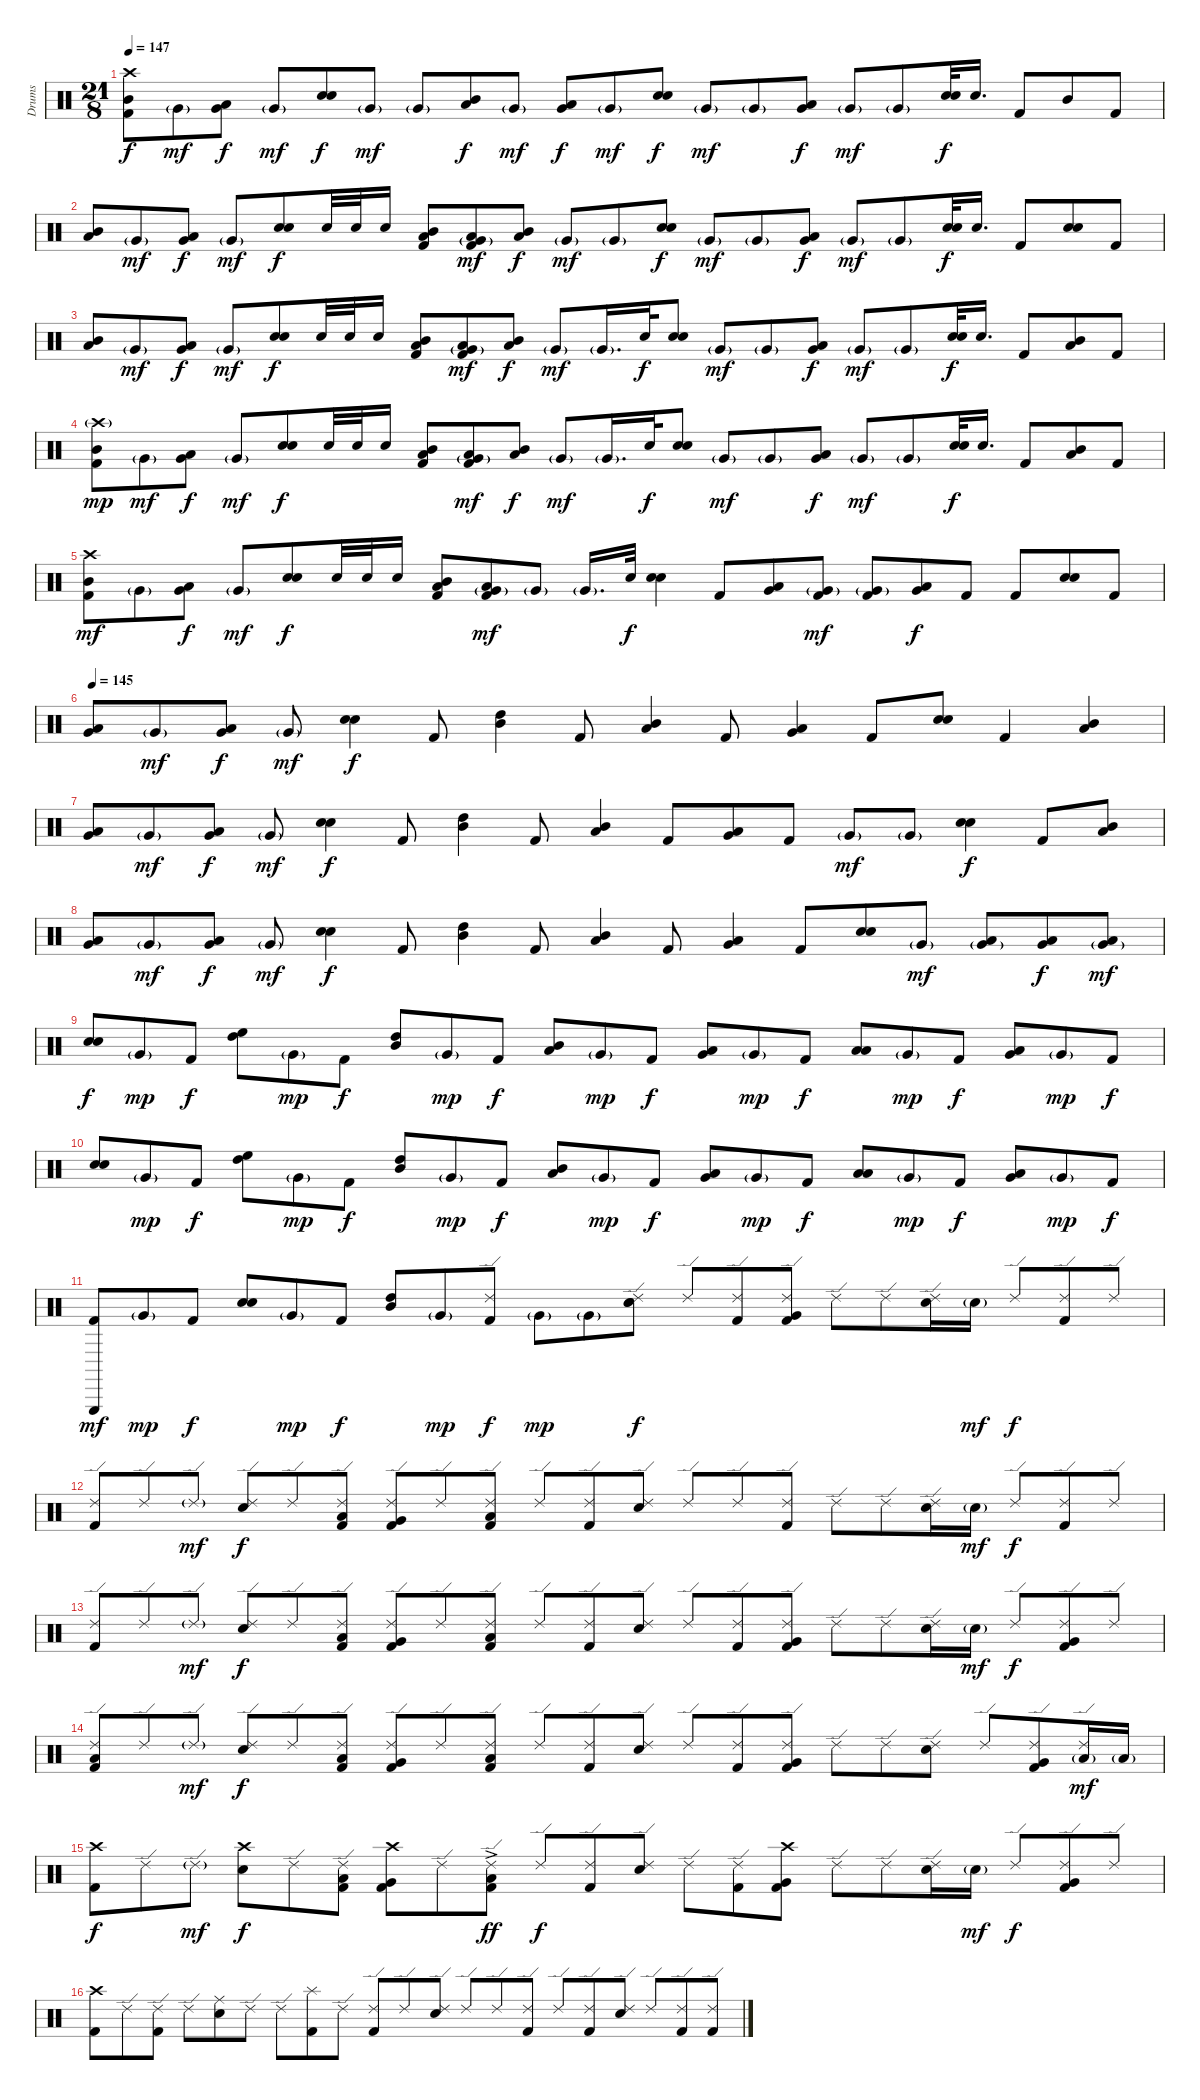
\track ("Drums" "Drums") {instrument percussion}
\staff {score}
\articulation defaults
\ts (21 8)
\tempo 147
\clef neutral
\ks c
("Crash high (hit)" "Mid Tom (hit)" "Kick (hit) 2").8{dy f} "Very Low Tom (hit)"{g}.8{dy mf} ("Low Tom (hit)" "Very Low Tom (hit)").8{dy f} "Very Low Tom (hit)"{g}.8{dy mf} ("Snare (hit) 2" "Electric Snare (hit)").8{dy f} "Very Low Tom (hit)"{g}.8{dy mf} "Very Low Tom (hit)"{g}.8 ("Mid Tom (hit)" "Low Tom (hit)").8{dy f} "Very Low Tom (hit)"{g}.8{dy mf} ("Low Tom (hit)" "Very Low Tom (hit)").8{dy f} "Very Low Tom (hit)"{g}.8{dy mf} ("Snare (hit) 2" "Electric Snare (hit)").8{dy f} "Very Low Tom (hit)"{g}.8{dy mf} "Very Low Tom (hit)"{g}.8 ("Low Tom (hit)" "Very Low Tom (hit)").8{dy f} "Very Low Tom (hit)"{g}.8{dy mf} "Very Low Tom (hit)"{g}.8 ("Snare (hit) 2" "Electric Snare (hit)").32{dy f} "Snare (hit) 2".16{d} "Kick (hit) 2".8 "Mid Tom (hit)".8 "Kick (hit) 2".8 |
("Mid Tom (hit)" "Low Tom (hit)").8 "Very Low Tom (hit)"{g}.8{dy mf} ("Low Tom (hit)" "Very Low Tom (hit)").8{dy f} "Very Low Tom (hit)"{g}.8{dy mf} ("Snare (hit) 2" "Electric Snare (hit)").8{dy f} "Snare (hit) 2".32 "Snare (hit) 2".32 "Snare (hit) 2".16 ("Mid Tom (hit)" "Low Tom (hit)" "Kick (hit) 2").8 ("Low Tom (hit)" "Very Low Tom (hit)"{g} "Kick (hit) 2").8{dy mf} ("Mid Tom (hit)" "Low Tom (hit)").8{dy f} "Very Low Tom (hit)"{g}.8{dy mf} "Very Low Tom (hit)"{g}.8 ("Snare (hit) 2" "Electric Snare (hit)").8{dy f} "Very Low Tom (hit)"{g}.8{dy mf} "Very Low Tom (hit)"{g}.8 ("Low Tom (hit)" "Very Low Tom (hit)").8{dy f} "Very Low Tom (hit)"{g}.8{dy mf} "Very Low Tom (hit)"{g}.8 ("Snare (hit) 2" "Electric Snare (hit)").32{dy f} "Snare (hit) 2".16{d} "Kick (hit) 2".8 ("Snare (hit) 2" "Electric Snare (hit)").8 "Kick (hit) 2".8 |
("Mid Tom (hit)" "Low Tom (hit)").8 "Very Low Tom (hit)"{g}.8{dy mf} ("Low Tom (hit)" "Very Low Tom (hit)").8{dy f} "Very Low Tom (hit)"{g}.8{dy mf} ("Snare (hit) 2" "Electric Snare (hit)").8{dy f} "Snare (hit) 2".32 "Snare (hit) 2".32 "Snare (hit) 2".16 ("Mid Tom (hit)" "Low Tom (hit)" "Kick (hit) 2").8 ("Low Tom (hit)" "Very Low Tom (hit)"{g} "Kick (hit) 2").8{dy mf} ("Mid Tom (hit)" "Low Tom (hit)").8{dy f} "Very Low Tom (hit)"{g}.8{dy mf} "Very Low Tom (hit)"{g}.16{d} "Snare (hit) 2".32{dy f} ("Snare (hit) 2" "Electric Snare (hit)").8 "Very Low Tom (hit)"{g}.8{dy mf} "Very Low Tom (hit)"{g}.8 ("Low Tom (hit)" "Very Low Tom (hit)").8{dy f} "Very Low Tom (hit)"{g}.8{dy mf} "Very Low Tom (hit)"{g}.8 ("Snare (hit) 2" "Electric Snare (hit)").32{dy f} "Snare (hit) 2".16{d} "Kick (hit) 2".8 ("Mid Tom (hit)" "Low Tom (hit)").8 "Kick (hit) 2".8 |
("Crash high (hit)"{g} "Mid Tom (hit)" "Kick (hit) 2").8{dy mp} "Very Low Tom (hit)"{g}.8{dy mf} ("Low Tom (hit)" "Very Low Tom (hit)").8{dy f} "Very Low Tom (hit)"{g}.8{dy mf} ("Snare (hit) 2" "Electric Snare (hit)").8{dy f} "Snare (hit) 2".32 "Snare (hit) 2".32 "Snare (hit) 2".16 ("Mid Tom (hit)" "Low Tom (hit)" "Kick (hit) 2").8 ("Low Tom (hit)" "Very Low Tom (hit)"{g} "Kick (hit) 2").8{dy mf} ("Mid Tom (hit)" "Low Tom (hit)").8{dy f} "Very Low Tom (hit)"{g}.8{dy mf} "Very Low Tom (hit)"{g}.16{d} "Snare (hit) 2".32{dy f} ("Snare (hit) 2" "Electric Snare (hit)").8 "Very Low Tom (hit)"{g}.8{dy mf} "Very Low Tom (hit)"{g}.8 ("Low Tom (hit)" "Very Low Tom (hit)").8{dy f} "Very Low Tom (hit)"{g}.8{dy mf} "Very Low Tom (hit)"{g}.8 ("Snare (hit) 2" "Electric Snare (hit)").32{dy f} "Snare (hit) 2".16{d} "Kick (hit) 2".8 ("Mid Tom (hit)" "Low Tom (hit)").8 "Kick (hit) 2".8 |
("Crash high (hit)" "Mid Tom (hit)" "Kick (hit) 2").8{dy mf} "Very Low Tom (hit)"{g}.8 ("Low Tom (hit)" "Very Low Tom (hit)").8{dy f} "Very Low Tom (hit)"{g}.8{dy mf} ("Snare (hit) 2" "Electric Snare (hit)").8{dy f} "Snare (hit) 2".32 "Snare (hit) 2".32 "Snare (hit) 2".16 ("Mid Tom (hit)" "Low Tom (hit)" "Kick (hit) 2").8 ("Low Tom (hit)" "Very Low Tom (hit)"{g} "Kick (hit) 2").8{dy mf} "Very Low Tom (hit)"{g}.8 "Very Low Tom (hit)"{g}.16{d} "Snare (hit) 2".32{dy f} ("Snare (hit) 2" "Electric Snare (hit)").4 "Kick (hit) 2".8 ("Low Tom (hit)" "Very Low Tom (hit)").8 ("Very Low Tom (hit)"{g} "Kick (hit) 2").8{dy mf} ("Very Low Tom (hit)"{g} "Kick (hit) 2").8 ("Very Low Tom (hit)" "Low Floor Tom (hit)").8{dy f} "Kick (hit) 2".8 "Kick (hit) 2".8 ("Snare (hit) 2" "Electric Snare (hit)").8 "Kick (hit) 2".8 |
\tempo 145
("Low Tom (hit)" "Very Low Tom (hit)").8 "Very Low Tom (hit)"{g}.8{dy mf} ("Very Low Tom (hit)" "Low Floor Tom (hit)").8{dy f} "Very Low Tom (hit)"{g}.8{dy mf} ("Snare (hit) 2" "Electric Snare (hit)").4{dy f} "Kick (hit) 2".8 ("High Tom (hit)" "Mid Tom (hit)").4 "Kick (hit) 2".8 ("Mid Tom (hit)" "Low Tom (hit)").4 "Kick (hit) 2".8 ("Low Tom (hit)" "Very Low Tom (hit)").4 "Kick (hit) 2".8 ("Snare (hit) 2" "Electric Snare (hit)").8 "Kick (hit) 2".4 ("Mid Tom (hit)" "Low Tom (hit)").4 |
("Low Tom (hit)" "Very Low Tom (hit)").8 "Very Low Tom (hit)"{g}.8{dy mf} ("Very Low Tom (hit)" "Low Floor Tom (hit)").8{dy f} "Very Low Tom (hit)"{g}.8{dy mf} ("Snare (hit) 2" "Electric Snare (hit)").4{dy f} "Kick (hit) 2".8 ("High Tom (hit)" "Mid Tom (hit)").4 "Kick (hit) 2".8 ("Mid Tom (hit)" "Low Tom (hit)").4 "Kick (hit) 2".8 ("Low Tom (hit)" "Very Low Tom (hit)").8 "Kick (hit) 2".8 "Very Low Tom (hit)"{g}.8{dy mf} "Very Low Tom (hit)"{g}.8 ("Snare (hit) 2" "Electric Snare (hit)").4{dy f} "Kick (hit) 2".8 ("Mid Tom (hit)" "Low Tom (hit)").8 |
("Low Tom (hit)" "Very Low Tom (hit)").8 "Very Low Tom (hit)"{g}.8{dy mf} ("Very Low Tom (hit)" "Low Floor Tom (hit)").8{dy f} "Very Low Tom (hit)"{g}.8{dy mf} ("Snare (hit) 2" "Electric Snare (hit)").4{dy f} "Kick (hit) 2".8 ("High Tom (hit)" "Mid Tom (hit)").4 "Kick (hit) 2".8 ("Mid Tom (hit)" "Low Tom (hit)").4 "Kick (hit) 2".8 ("Low Tom (hit)" "Very Low Tom (hit)").4 "Kick (hit) 2".8 ("Snare (hit) 2" "Electric Snare (hit)").8 "Very Low Tom (hit)"{g}.8{dy mf} ("Low Tom (hit)" "Very Low Tom (hit)"{g}).8 ("Low Tom (hit)" "Very Low Tom (hit)").8{dy f} ("Low Tom (hit)" "Very Low Tom (hit)"{g}).8{dy mf} |
("Snare (hit) 2" "Electric Snare (hit)").8{dy f} "Very Low Tom (hit)"{g}.8{dy mp} "Kick (hit) 2".8{dy f} ("High Floor Tom (hit)" "High Tom (hit)").8 "Very Low Tom (hit)"{g}.8{dy mp} "Kick (hit) 2".8{dy f} ("High Tom (hit)" "Mid Tom (hit)").8 "Very Low Tom (hit)"{g}.8{dy mp} "Kick (hit) 2".8{dy f} ("Mid Tom (hit)" "Low Tom (hit)").8 "Very Low Tom (hit)"{g}.8{dy mp} "Kick (hit) 2".8{dy f} ("Low Tom (hit)" "Very Low Tom (hit)").8 "Very Low Tom (hit)"{g}.8{dy mp} "Kick (hit) 2".8{dy f} ("Low Tom (hit)" "Low Floor Tom (hit)").8 "Very Low Tom (hit)"{g}.8{dy mp} "Kick (hit) 2".8{dy f} ("Very Low Tom (hit)" "Low Floor Tom (hit)").8 "Very Low Tom (hit)"{g}.8{dy mp} "Kick (hit) 2".8{dy f} |
("Snare (hit) 2" "Electric Snare (hit)").8 "Very Low Tom (hit)"{g}.8{dy mp} "Kick (hit) 2".8{dy f} ("High Floor Tom (hit)" "High Tom (hit)").8 "Very Low Tom (hit)"{g}.8{dy mp} "Kick (hit) 2".8{dy f} ("High Tom (hit)" "Mid Tom (hit)").8 "Very Low Tom (hit)"{g}.8{dy mp} "Kick (hit) 2".8{dy f} ("Mid Tom (hit)" "Low Tom (hit)").8 "Very Low Tom (hit)"{g}.8{dy mp} "Kick (hit) 2".8{dy f} ("Low Tom (hit)" "Very Low Tom (hit)").8 "Very Low Tom (hit)"{g}.8{dy mp} "Kick (hit) 2".8{dy f} ("Low Tom (hit)" "Low Floor Tom (hit)").8 "Very Low Tom (hit)"{g}.8{dy mp} "Kick (hit) 2".8{dy f} ("Very Low Tom (hit)" "Low Floor Tom (hit)").8 "Very Low Tom (hit)"{g}.8{dy mp} "Kick (hit) 2".8{dy f} |
("Triangle (hit)" "Kick (hit) 2").8{dy mf} "Very Low Tom (hit)"{g}.8{dy mp} "Kick (hit) 2".8{dy f} ("Snare (hit) 2" "Electric Snare (hit)").8 "Very Low Tom (hit)"{g}.8{dy mp} "Kick (hit) 2".8{dy f} ("High Tom (hit)" "Mid Tom (hit)").8 "Very Low Tom (hit)"{g}.8{dy mp} ("Ride (edge) 2" "Kick (hit) 2").8{dy f} "Very Low Tom (hit)"{g}.8{dy mp} "Very Low Tom (hit)"{g}.8 ("Ride (edge) 2" "Snare (hit) 2" "Electric Snare (hit)").8{dy f} "Ride (edge) 2".8 ("Ride (edge) 2" "Kick (hit) 2").8 ("Ride (edge) 2" "Very Low Tom (hit)" "Kick (hit) 2").8 "Ride (edge) 2".8 "Ride (edge) 2".8 ("Ride (edge) 2" "Snare (hit) 2").16 "Snare (hit) 2"{g}.16{dy mf} "Ride (edge) 2".8{dy f} ("Ride (edge) 2" "Kick (hit) 2").8 "Ride (edge) 2".8 |
("Ride (edge) 2" "Kick (hit) 2").8 "Ride (edge) 2".8 "Ride (edge) 2"{g}.8{dy mf} ("Ride (edge) 2" "Snare (hit) 2").8{dy f} "Ride (edge) 2".8 ("Ride (edge) 2" "Low Tom (hit)" "Kick (hit) 2").8 ("Ride (edge) 2" "Very Low Tom (hit)" "Kick (hit) 2").8 "Ride (edge) 2".8 ("Ride (edge) 2" "Low Floor Tom (hit)" "Kick (hit) 2").8 "Ride (edge) 2".8 ("Ride (edge) 2" "Kick (hit) 2").8 ("Ride (edge) 2" "Snare (hit) 2").8 "Ride (edge) 2".8 "Ride (edge) 2".8 ("Ride (edge) 2" "Kick (hit) 2").8 "Ride (edge) 2".8 "Ride (edge) 2".8 ("Ride (edge) 2" "Snare (hit) 2").16 "Snare (hit) 2"{g}.16{dy mf} "Ride (edge) 2".8{dy f} ("Ride (edge) 2" "Kick (hit) 2").8 "Ride (edge) 2".8 |
("Ride (edge) 2" "Kick (hit) 2").8 "Ride (edge) 2".8 "Ride (edge) 2"{g}.8{dy mf} ("Ride (edge) 2" "Snare (hit) 2").8{dy f} "Ride (edge) 2".8 ("Ride (edge) 2" "Low Tom (hit)" "Kick (hit) 2").8 ("Ride (edge) 2" "Very Low Tom (hit)" "Kick (hit) 2").8 "Ride (edge) 2".8 ("Ride (edge) 2" "Low Floor Tom (hit)" "Kick (hit) 2").8 "Ride (edge) 2".8 ("Ride (edge) 2" "Kick (hit) 2").8 ("Ride (edge) 2" "Snare (hit) 2").8 "Ride (edge) 2".8 ("Ride (edge) 2" "Kick (hit) 2").8 ("Ride (edge) 2" "Very Low Tom (hit)" "Kick (hit) 2").8 "Ride (edge) 2".8 "Ride (edge) 2".8 ("Ride (edge) 2" "Snare (hit) 2").16 "Snare (hit) 2"{g}.16{dy mf} "Ride (edge) 2".8{dy f} ("Ride (edge) 2" "Very Low Tom (hit)" "Kick (hit) 2").8 "Ride (edge) 2".8 |
("Ride (edge) 2" "Low Floor Tom (hit)" "Kick (hit) 2").8 "Ride (edge) 2".8 "Ride (edge) 2"{g}.8{dy mf} ("Ride (edge) 2" "Snare (hit) 2").8{dy f} "Ride (edge) 2".8 ("Ride (edge) 2" "Low Tom (hit)" "Kick (hit) 2").8 ("Ride (edge) 2" "Very Low Tom (hit)" "Kick (hit) 2").8 "Ride (edge) 2".8 ("Ride (edge) 2" "Low Floor Tom (hit)" "Kick (hit) 2").8 "Ride (edge) 2".8 ("Ride (edge) 2" "Kick (hit) 2").8 ("Ride (edge) 2" "Snare (hit) 2").8 "Ride (edge) 2".8 ("Ride (edge) 2" "Kick (hit) 2").8 ("Ride (edge) 2" "Very Low Tom (hit)" "Kick (hit) 2").8 "Ride (edge) 2".8 "Ride (edge) 2".8 ("Ride (edge) 2" "Snare (hit) 2").8 "Ride (edge) 2".8 ("Ride (edge) 2" "Very Low Tom (hit)" "Kick (hit) 2").8 ("Ride (edge) 2" "Low Floor Tom (hit)"{g}).16{dy mf} "Low Floor Tom (hit)"{g}.16 |
("Crash high (hit)" "Kick (hit) 2").8{dy f} "Ride (edge) 2".8 "Ride (edge) 2"{g}.8{dy mf} ("Crash high (hit)" "Snare (hit) 2").8{dy f} "Ride (edge) 2".8 ("Ride (edge) 2" "Low Tom (hit)" "Kick (hit) 2").8 ("Crash high (hit)" "Very Low Tom (hit)" "Kick (hit) 2").8 "Ride (edge) 2".8 ("Ride (edge) 2"{ac} "Low Floor Tom (hit)" "Kick (hit) 2").8{dy ff} "Ride (edge) 2".8{dy f} ("Ride (edge) 2" "Kick (hit) 2").8 ("Ride (edge) 2" "Snare (hit) 2").8 "Ride (edge) 2".8 ("Ride (edge) 2" "Kick (hit) 2").8 ("Crash high (hit)" "Very Low Tom (hit)" "Kick (hit) 2").8 "Ride (edge) 2".8 "Ride (edge) 2".8 ("Ride (edge) 2" "Snare (hit) 2").16 "Snare (hit) 2"{g}.16{dy mf} "Ride (edge) 2".8{dy f} ("Ride (edge) 2" "Very Low Tom (hit)" "Kick (hit) 2").8 "Ride (edge) 2".8 |
("Crash high (hit)" "Kick (hit) 2").8 "Ride (edge) 2".8 ("Ride (edge) 2" "Kick (hit) 2").8 "Ride (edge) 2".8 ("Ride (middle)" "Snare (hit) 2").8 "Ride (edge) 2".8 "Ride (edge) 2".8 ("Splash (hit)" "Kick (hit) 2").8 "Ride (edge) 2".8 ("Ride (edge) 2" "Kick (hit) 2").8 "Ride (edge) 2".8 ("Ride (edge) 2" "Snare (hit) 2").8 "Ride (edge) 2".8 "Ride (edge) 2".8 ("Ride (edge) 2" "Kick (hit) 2").8 "Ride (edge) 2".8 ("Ride (edge) 2" "Kick (hit) 2").8 ("Ride (edge) 2" "Snare (hit) 2").8 "Ride (edge) 2".8 ("Ride (edge) 2" "Kick (hit) 2").8 ("Ride (edge) 2" "Kick (hit) 2").8
